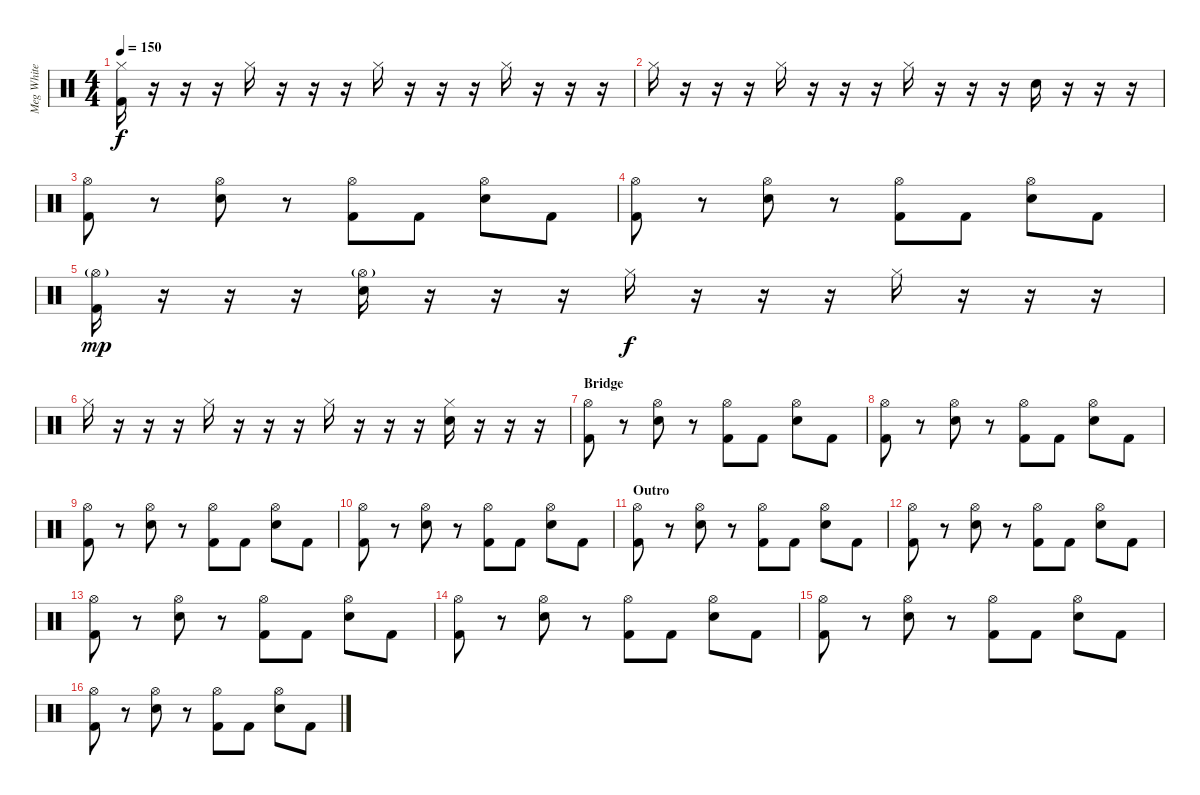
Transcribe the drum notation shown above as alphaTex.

\track ("Meg White - Drums" "Meg White ") {instrument percussion}
\staff {score}
\articulation defaults
\ts (4 4)
\tempo 150
\clef neutral
\ks c
("Hi-Hat (closed)" "Kick (hit) 2").16{dy f} r.16 r.16 r.16 "Hi-Hat (closed)".16 r.16 r.16 r.16 "Hi-Hat (closed)".16 r.16 r.16 r.16 "Hi-Hat (closed)".16 r.16 r.16 r.16 |
"Hi-Hat (closed)".16 r.16 r.16 r.16 "Hi-Hat (closed)".16 r.16 r.16 r.16 "Hi-Hat (closed)".16 r.16 r.16 r.16 "Electric Snare (hit)".16 r.16 r.16 r.16 |
("Hi-Hat (open)" "Kick (hit) 2").8 r.8 ("Hi-Hat (open)" "Electric Snare (hit)").8 r.8 ("Hi-Hat (open)" "Kick (hit) 2").8 "Kick (hit) 2".8 ("Hi-Hat (open)" "Electric Snare (hit)").8 "Kick (hit) 2".8 |
("Hi-Hat (open)" "Kick (hit) 2").8 r.8 ("Hi-Hat (open)" "Electric Snare (hit)").8 r.8 ("Hi-Hat (open)" "Kick (hit) 2").8 "Kick (hit) 2".8 ("Hi-Hat (open)" "Electric Snare (hit)").8 "Kick (hit) 2".8 |
("Hi-Hat (open)"{g} "Kick (hit) 2").16{dy mp} r.16 r.16 r.16 ("Hi-Hat (open)"{g} "Electric Snare (hit)").16 r.16 r.16 r.16 "Hi-Hat (closed)".16{dy f} r.16 r.16 r.16 "Hi-Hat (closed)".16 r.16 r.16 r.16 |
"Hi-Hat (closed)".16 r.16 r.16 r.16 "Hi-Hat (closed)".16 r.16 r.16 r.16 "Hi-Hat (closed)".16 r.16 r.16 r.16 ("Hi-Hat (closed)" "Electric Snare (hit)").16 r.16 r.16 r.16 |
\section ("" "Bridge")
("Hi-Hat (open)" "Kick (hit) 2").8 r.8 ("Hi-Hat (open)" "Electric Snare (hit)").8 r.8 ("Hi-Hat (open)" "Kick (hit) 2").8 "Kick (hit) 2".8 ("Hi-Hat (open)" "Electric Snare (hit)").8 "Kick (hit) 2".8 |
("Hi-Hat (open)" "Kick (hit) 2").8 r.8 ("Hi-Hat (open)" "Electric Snare (hit)").8 r.8 ("Hi-Hat (open)" "Kick (hit) 2").8 "Kick (hit) 2".8 ("Hi-Hat (open)" "Electric Snare (hit)").8 "Kick (hit) 2".8 |
("Hi-Hat (open)" "Kick (hit) 2").8 r.8 ("Hi-Hat (open)" "Electric Snare (hit)").8 r.8 ("Hi-Hat (open)" "Kick (hit) 2").8 "Kick (hit) 2".8 ("Hi-Hat (open)" "Electric Snare (hit)").8 "Kick (hit) 2".8 |
("Hi-Hat (open)" "Kick (hit) 2").8 r.8 ("Hi-Hat (open)" "Electric Snare (hit)").8 r.8 ("Hi-Hat (open)" "Kick (hit) 2").8 "Kick (hit) 2".8 ("Hi-Hat (open)" "Electric Snare (hit)").8 "Kick (hit) 2".8 |
\section ("" "Outro")
("Hi-Hat (open)" "Kick (hit) 2").8 r.8 ("Hi-Hat (open)" "Electric Snare (hit)").8 r.8 ("Hi-Hat (open)" "Kick (hit) 2").8 "Kick (hit) 2".8 ("Hi-Hat (open)" "Electric Snare (hit)").8 "Kick (hit) 2".8 |
("Hi-Hat (open)" "Kick (hit) 2").8 r.8 ("Hi-Hat (open)" "Electric Snare (hit)").8 r.8 ("Hi-Hat (open)" "Kick (hit) 2").8 "Kick (hit) 2".8 ("Hi-Hat (open)" "Electric Snare (hit)").8 "Kick (hit) 2".8 |
("Hi-Hat (open)" "Kick (hit) 2").8 r.8 ("Hi-Hat (open)" "Electric Snare (hit)").8 r.8 ("Hi-Hat (open)" "Kick (hit) 2").8 "Kick (hit) 2".8 ("Hi-Hat (open)" "Electric Snare (hit)").8 "Kick (hit) 2".8 |
("Hi-Hat (open)" "Kick (hit) 2").8 r.8 ("Hi-Hat (open)" "Electric Snare (hit)").8 r.8 ("Hi-Hat (open)" "Kick (hit) 2").8 "Kick (hit) 2".8 ("Hi-Hat (open)" "Electric Snare (hit)").8 "Kick (hit) 2".8 |
("Hi-Hat (open)" "Kick (hit) 2").8 r.8 ("Hi-Hat (open)" "Electric Snare (hit)").8 r.8 ("Hi-Hat (open)" "Kick (hit) 2").8 "Kick (hit) 2".8 ("Hi-Hat (open)" "Electric Snare (hit)").8 "Kick (hit) 2".8 |
("Hi-Hat (open)" "Kick (hit) 2").8 r.8 ("Hi-Hat (open)" "Electric Snare (hit)").8 r.8 ("Hi-Hat (open)" "Kick (hit) 2").8 "Kick (hit) 2".8 ("Hi-Hat (open)" "Electric Snare (hit)").8 "Kick (hit) 2".8
